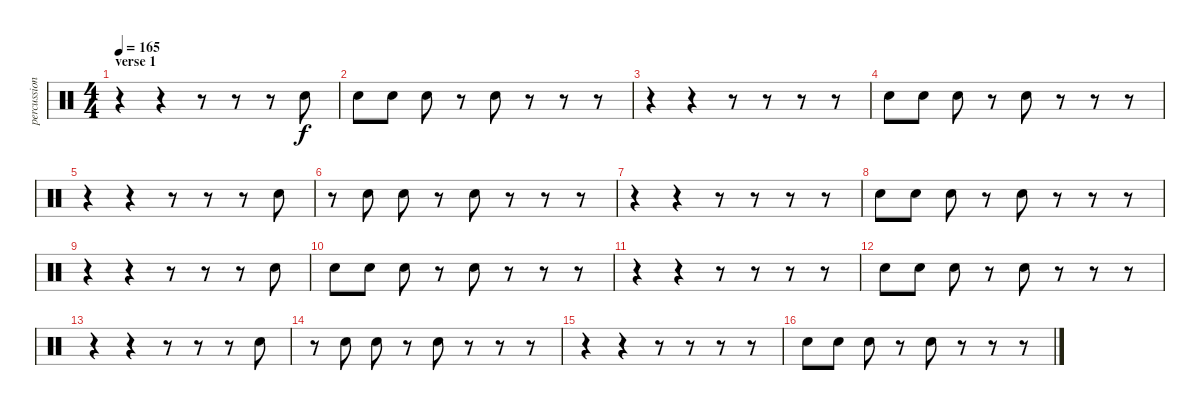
\track ("percussion" "percussion") {instrument percussion}
\staff {score}
\articulation defaults
\ts (4 4)
\section ("" "verse 1")
\tempo 165
\clef neutral
\ks c
r.4{dy f} r.4 r.8 r.8 r.8 "Hand Clap (hit)".8 |
"Hand Clap (hit)".8 "Hand Clap (hit)".8 "Hand Clap (hit)".8 r.8 "Hand Clap (hit)".8 r.8 r.8 r.8 |
r.4 r.4 r.8 r.8 r.8 r.8 |
"Hand Clap (hit)".8 "Hand Clap (hit)".8 "Hand Clap (hit)".8 r.8 "Hand Clap (hit)".8 r.8 r.8 r.8 |
r.4 r.4 r.8 r.8 r.8 "Hand Clap (hit)".8 |
r.8 "Hand Clap (hit)".8 "Hand Clap (hit)".8 r.8 "Hand Clap (hit)".8 r.8 r.8 r.8 |
r.4 r.4 r.8 r.8 r.8 r.8 |
"Hand Clap (hit)".8 "Hand Clap (hit)".8 "Hand Clap (hit)".8 r.8 "Hand Clap (hit)".8 r.8 r.8 r.8 |
r.4 r.4 r.8 r.8 r.8 "Hand Clap (hit)".8 |
"Hand Clap (hit)".8 "Hand Clap (hit)".8 "Hand Clap (hit)".8 r.8 "Hand Clap (hit)".8 r.8 r.8 r.8 |
r.4 r.4 r.8 r.8 r.8 r.8 |
"Hand Clap (hit)".8 "Hand Clap (hit)".8 "Hand Clap (hit)".8 r.8 "Hand Clap (hit)".8 r.8 r.8 r.8 |
r.4 r.4 r.8 r.8 r.8 "Hand Clap (hit)".8 |
r.8 "Hand Clap (hit)".8 "Hand Clap (hit)".8 r.8 "Hand Clap (hit)".8 r.8 r.8 r.8 |
r.4 r.4 r.8 r.8 r.8 r.8 |
"Hand Clap (hit)".8 "Hand Clap (hit)".8 "Hand Clap (hit)".8 r.8 "Hand Clap (hit)".8 r.8 r.8 r.8
